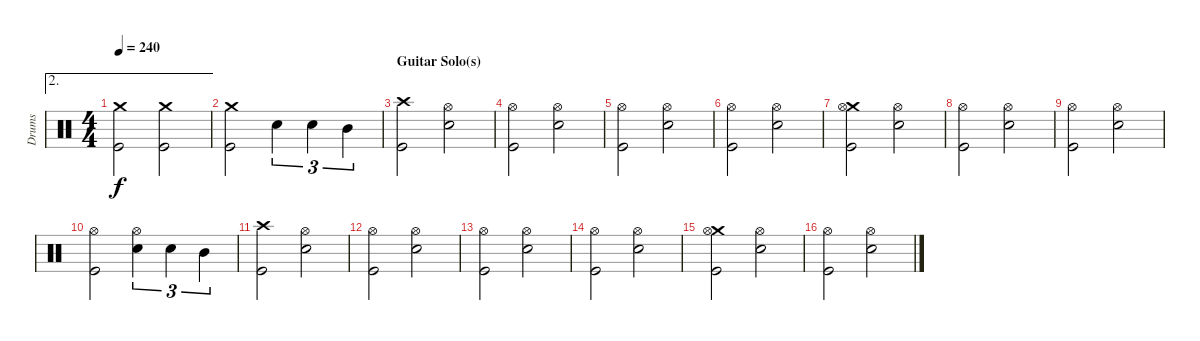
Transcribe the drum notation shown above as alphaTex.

\track ("Drums" "Drums") {instrument percussion}
\staff {score}
\articulation defaults
\ae 2
\ts (4 4)
\tempo 240
\clef neutral
\ks c
("Crash medium (hit)" "Kick (hit)").2{dy f} ("Crash medium (hit)" "Kick (hit)").2 |
("Crash medium (hit)" "Kick (hit)").2 "Electric Snare (hit)".4{tu (3 2)} "Electric Snare (hit)".4{tu (3 2)} "Mid Tom (hit)".4{tu (3 2)} |
\section ("" "Guitar Solo(s)")
("Crash high (hit)" "Kick (hit)").2 ("Hi-Hat (open)" "Electric Snare (hit)").2 |
("Hi-Hat (open)" "Kick (hit)").2 ("Hi-Hat (open)" "Electric Snare (hit)").2 |
("Hi-Hat (open)" "Kick (hit)").2 ("Hi-Hat (open)" "Electric Snare (hit)").2 |
("Hi-Hat (open)" "Kick (hit)").2 ("Hi-Hat (open)" "Electric Snare (hit)").2 |
("Crash medium (hit)" "Hi-Hat (open)" "Kick (hit)").2 ("Hi-Hat (open)" "Electric Snare (hit)").2 |
("Hi-Hat (open)" "Kick (hit)").2 ("Hi-Hat (open)" "Electric Snare (hit)").2 |
("Hi-Hat (open)" "Kick (hit)").2 ("Hi-Hat (open)" "Electric Snare (hit)").2 |
("Hi-Hat (open)" "Kick (hit)").2 ("Hi-Hat (open)" "Electric Snare (hit)").4{tu (3 2)} "Electric Snare (hit)".4{tu (3 2)} "Mid Tom (hit)".4{tu (3 2)} |
("Crash high (hit)" "Kick (hit)").2 ("Hi-Hat (open)" "Electric Snare (hit)").2 |
("Hi-Hat (open)" "Kick (hit)").2 ("Hi-Hat (open)" "Electric Snare (hit)").2 |
("Hi-Hat (open)" "Kick (hit)").2 ("Hi-Hat (open)" "Electric Snare (hit)").2 |
("Hi-Hat (open)" "Kick (hit)").2 ("Hi-Hat (open)" "Electric Snare (hit)").2 |
("Crash medium (hit)" "Hi-Hat (open)" "Kick (hit)").2 ("Hi-Hat (open)" "Electric Snare (hit)").2 |
("Hi-Hat (open)" "Kick (hit)").2 ("Hi-Hat (open)" "Electric Snare (hit)").2
